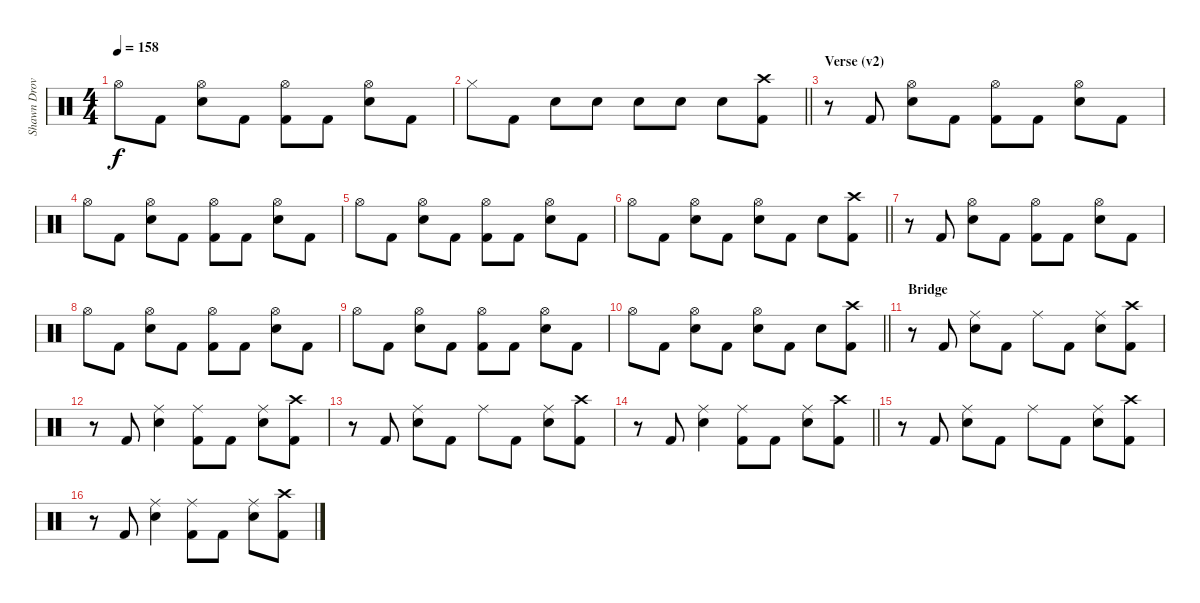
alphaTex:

\track ("Shawn Drover" "Shawn Drov") {instrument percussion}
\staff
\articulation defaults
\ts (4 4)
\tempo 158
\clef neutral
\ks c "Hi-Hat (open)".8{dy f} "Kick (hit) 2".8
("Hi-Hat (open)" "Snare (hit) 2").8 "Kick (hit) 2".8 ("Hi-Hat (open)" "Kick (hit) 2").8 "Kick (hit) 2".8 ("Hi-Hat (open)" "Snare (hit) 2").8 "Kick (hit) 2".8 |
\barLineRight lightlight "Hi-Hat (closed)".8 "Kick (hit) 2".8 "Snare (hit) 2".8 "Snare (hit) 2".8 "Snare (hit) 2".8 "Snare (hit) 2".8 "Snare (hit) 2".8
("Crash high (hit)" "Kick (hit) 2").8 |
\section ("" "Verse (v2)")
r.8 "Kick (hit) 2".8 ("Hi-Hat (open)" "Snare (hit) 2").8 "Kick (hit) 2".8 ("Hi-Hat (open)" "Kick (hit) 2").8 "Kick (hit) 2".8 ("Hi-Hat (open)" "Snare (hit) 2").8 "Kick (hit) 2".8 |
"Hi-Hat (open)".8 "Kick (hit) 2".8 ("Hi-Hat (open)" "Snare (hit) 2").8 "Kick (hit) 2".8 ("Hi-Hat (open)" "Kick (hit) 2").8 "Kick (hit) 2".8 ("Hi-Hat (open)" "Snare (hit) 2").8 "Kick (hit) 2".8 |
"Hi-Hat (open)".8 "Kick (hit) 2".8 ("Hi-Hat (open)" "Snare (hit) 2").8 "Kick (hit) 2".8 ("Hi-Hat (open)" "Kick (hit) 2").8 "Kick (hit) 2".8 ("Hi-Hat (open)" "Snare (hit) 2").8 "Kick (hit) 2".8 |
\barLineRight lightlight "Hi-Hat (open)".8 "Kick (hit) 2".8
("Hi-Hat (open)" "Snare (hit) 2").8 "Kick (hit) 2".8 ("Hi-Hat (open)" "Snare (hit) 2").8 "Kick (hit) 2".8 "Snare (hit) 2".8 ("Crash high (hit)" "Kick (hit) 2").8 |
r.8 "Kick (hit) 2".8 ("Hi-Hat (open)" "Snare (hit) 2").8 "Kick (hit) 2".8 ("Hi-Hat (open)" "Kick (hit) 2").8 "Kick (hit) 2".8 ("Hi-Hat (open)" "Snare (hit) 2").8 "Kick (hit) 2".8 |
"Hi-Hat (open)".8 "Kick (hit) 2".8 ("Hi-Hat (open)" "Snare (hit) 2").8 "Kick (hit) 2".8 ("Hi-Hat (open)" "Kick (hit) 2").8 "Kick (hit) 2".8 ("Hi-Hat (open)" "Snare (hit) 2").8 "Kick (hit) 2".8 |
"Hi-Hat (open)".8 "Kick (hit) 2".8 ("Hi-Hat (open)" "Snare (hit) 2").8 "Kick (hit) 2".8 ("Hi-Hat (open)" "Kick (hit) 2").8 "Kick (hit) 2".8 ("Hi-Hat (open)" "Snare (hit) 2").8 "Kick (hit) 2".8 |
\barLineRight lightlight "Hi-Hat (open)".8 "Kick (hit) 2".8
("Hi-Hat (open)" "Snare (hit) 2").8 "Kick (hit) 2".8 ("Hi-Hat (open)" "Snare (hit) 2").8 "Kick (hit) 2".8 "Snare (hit) 2".8 ("Crash high (hit)" "Kick (hit) 2").8 |
\section ("" "Bridge")
r.8 "Kick (hit) 2".8 ("Ride (middle)" "Snare (hit) 2").8 "Kick (hit) 2".8 "Ride (middle)".8 "Kick (hit) 2".8 ("Ride (middle)" "Snare (hit) 2").8 ("Crash high (hit)" "Kick (hit) 2").8 |
r.8 "Kick (hit) 2".8 ("Ride (middle)" "Snare (hit) 2").4 ("Ride (middle)" "Kick (hit) 2").8 "Kick (hit) 2".8 ("Ride (middle)" "Snare (hit) 2").8 ("Crash high (hit)" "Kick (hit) 2").8 |
r.8 "Kick (hit) 2".8 ("Ride (middle)" "Snare (hit) 2").8 "Kick (hit) 2".8 "Ride (middle)".8 "Kick (hit) 2".8 ("Ride (middle)" "Snare (hit) 2").8 ("Crash high (hit)" "Kick (hit) 2").8 |
\barLineRight lightlight
r.8 "Kick (hit) 2".8 ("Ride (middle)" "Snare (hit) 2").4 ("Ride (middle)" "Kick (hit) 2").8 "Kick (hit) 2".8 ("Ride (middle)" "Snare (hit) 2").8 ("Crash high (hit)" "Kick (hit) 2").8 |
r.8 "Kick (hit) 2".8 ("Ride (middle)" "Snare (hit) 2").8 "Kick (hit) 2".8 "Ride (middle)".8 "Kick (hit) 2".8 ("Ride (middle)" "Snare (hit) 2").8 ("Crash high (hit)" "Kick (hit) 2").8 |
r.8 "Kick (hit) 2".8 ("Ride (middle)" "Snare (hit) 2").4 ("Ride (middle)" "Kick (hit) 2").8 "Kick (hit) 2".8 ("Ride (middle)" "Snare (hit) 2").8 ("Crash high (hit)" "Kick (hit) 2").8
